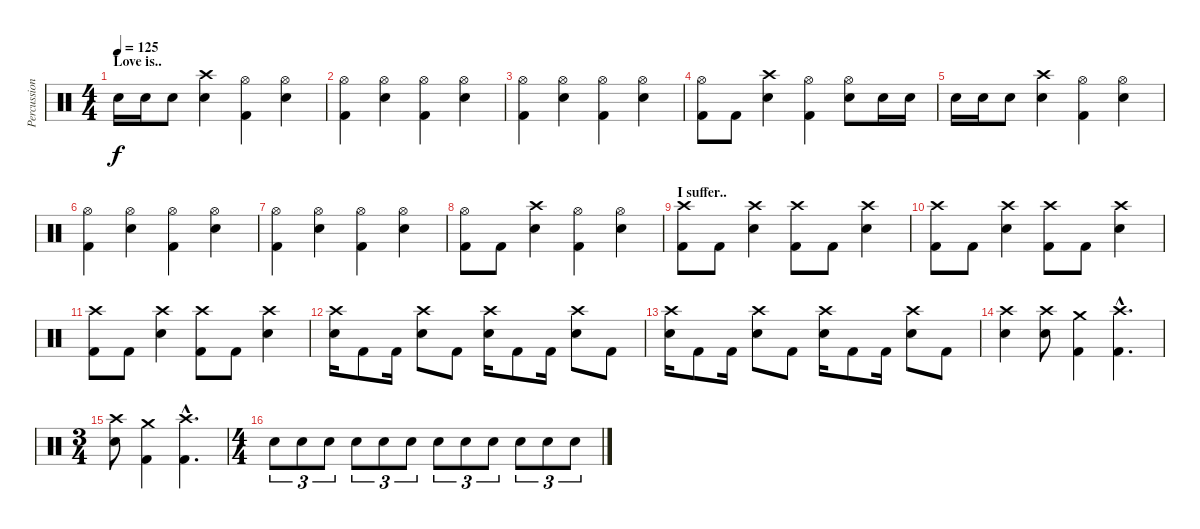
\track ("Percussion" "Percussion") {instrument percussion}
\staff {score}
\articulation defaults
\ts (4 4)
\section ("" "Love is..")
\tempo 125
\clef neutral
\ks c "Electric Snare (hit)".16{dy f} "Electric Snare (hit)".16 "Electric Snare (hit)".8
("Electric Snare (hit)" "Crash high (hit)").4 ("Kick (hit) 2" "Hi-Hat (open)").4 ("Electric Snare (hit)" "Hi-Hat (open)").4 |
("Kick (hit) 2" "Hi-Hat (open)").4 ("Electric Snare (hit)" "Hi-Hat (open)").4 ("Kick (hit) 2" "Hi-Hat (open)").4 ("Electric Snare (hit)" "Hi-Hat (open)").4 |
("Kick (hit) 2" "Hi-Hat (open)").4 ("Electric Snare (hit)" "Hi-Hat (open)").4 ("Kick (hit) 2" "Hi-Hat (open)").4 ("Electric Snare (hit)" "Hi-Hat (open)").4 |
("Kick (hit) 2" "Hi-Hat (open)").8 "Kick (hit) 2".8 ("Electric Snare (hit)" "Crash high (hit)").4 ("Kick (hit) 2" "Hi-Hat (open)").4 ("Electric Snare (hit)" "Hi-Hat (open)").8 "Electric Snare (hit)".16 "Electric Snare (hit)".16 |
"Electric Snare (hit)".16 "Electric Snare (hit)".16 "Electric Snare (hit)".8 ("Electric Snare (hit)" "Crash high (hit)").4 ("Kick (hit) 2" "Hi-Hat (open)").4 ("Electric Snare (hit)" "Hi-Hat (open)").4 |
("Kick (hit) 2" "Hi-Hat (open)").4 ("Electric Snare (hit)" "Hi-Hat (open)").4 ("Kick (hit) 2" "Hi-Hat (open)").4 ("Electric Snare (hit)" "Hi-Hat (open)").4 |
("Kick (hit) 2" "Hi-Hat (open)").4 ("Electric Snare (hit)" "Hi-Hat (open)").4 ("Kick (hit) 2" "Hi-Hat (open)").4 ("Electric Snare (hit)" "Hi-Hat (open)").4 |
("Kick (hit) 2" "Hi-Hat (open)").8 "Kick (hit) 2".8 ("Electric Snare (hit)" "Crash high (hit)").4 ("Kick (hit) 2" "Hi-Hat (open)").4 ("Electric Snare (hit)" "Hi-Hat (open)").4 |
\section ("" "I suffer..")
("Kick (hit) 2" "Crash high (hit)").8 "Kick (hit) 2".8 ("Electric Snare (hit)" "Crash high (hit)").4 ("Kick (hit) 2" "Crash high (hit)").8 "Kick (hit) 2".8 ("Electric Snare (hit)" "Crash high (hit)").4 |
("Kick (hit) 2" "Crash high (hit)").8 "Kick (hit) 2".8 ("Electric Snare (hit)" "Crash high (hit)").4 ("Kick (hit) 2" "Crash high (hit)").8 "Kick (hit) 2".8 ("Electric Snare (hit)" "Crash high (hit)").4 |
("Kick (hit) 2" "Crash high (hit)").8 "Kick (hit) 2".8 ("Electric Snare (hit)" "Crash high (hit)").4 ("Kick (hit) 2" "Crash high (hit)").8 "Kick (hit) 2".8 ("Electric Snare (hit)" "Crash high (hit)").4 |
("Electric Snare (hit)" "Crash high (hit)").16 "Kick (hit) 2".8 "Kick (hit) 2".16 ("Electric Snare (hit)" "Crash high (hit)").8 "Kick (hit) 2".8 ("Electric Snare (hit)" "Crash high (hit)").16 "Kick (hit) 2".8 "Kick (hit) 2".16 ("Electric Snare (hit)" "Crash high (hit)").8 "Kick (hit) 2".8 |
("Electric Snare (hit)" "Crash high (hit)").16 "Kick (hit) 2".8 "Kick (hit) 2".16 ("Electric Snare (hit)" "Crash high (hit)").8 "Kick (hit) 2".8 ("Electric Snare (hit)" "Crash high (hit)").16 "Kick (hit) 2".8 "Kick (hit) 2".16 ("Electric Snare (hit)" "Crash high (hit)").8 "Kick (hit) 2".8 |
("Electric Snare (hit)" "Crash high (hit)").4 ("Electric Snare (hit)" "Crash high (hit)").8 ("Kick (hit) 2" "Crash medium (hit)").4 ("Kick (hit) 2"{hac} "Crash high (hit)"{hac}).4{d} |
\ts (3 4)
("Electric Snare (hit)" "Crash high (hit)").8 ("Kick (hit) 2" "Crash medium (hit)").4 ("Kick (hit) 2"{hac} "Crash high (hit)"{hac}).4{d} |
\ts (4 4)
"Electric Snare (hit)".8{tu (3 2)} "Electric Snare (hit)".8{tu (3 2)} "Electric Snare (hit)".8{tu (3 2)} "Electric Snare (hit)".8{tu (3 2)} "Electric Snare (hit)".8{tu (3 2)} "Electric Snare (hit)".8{tu (3 2)} "Electric Snare (hit)".8{tu (3 2)} "Electric Snare (hit)".8{tu (3 2)} "Electric Snare (hit)".8{tu (3 2)} "Electric Snare (hit)".8{tu (3 2)} "Electric Snare (hit)".8{tu (3 2)} "Electric Snare (hit)".8{tu (3 2)}
